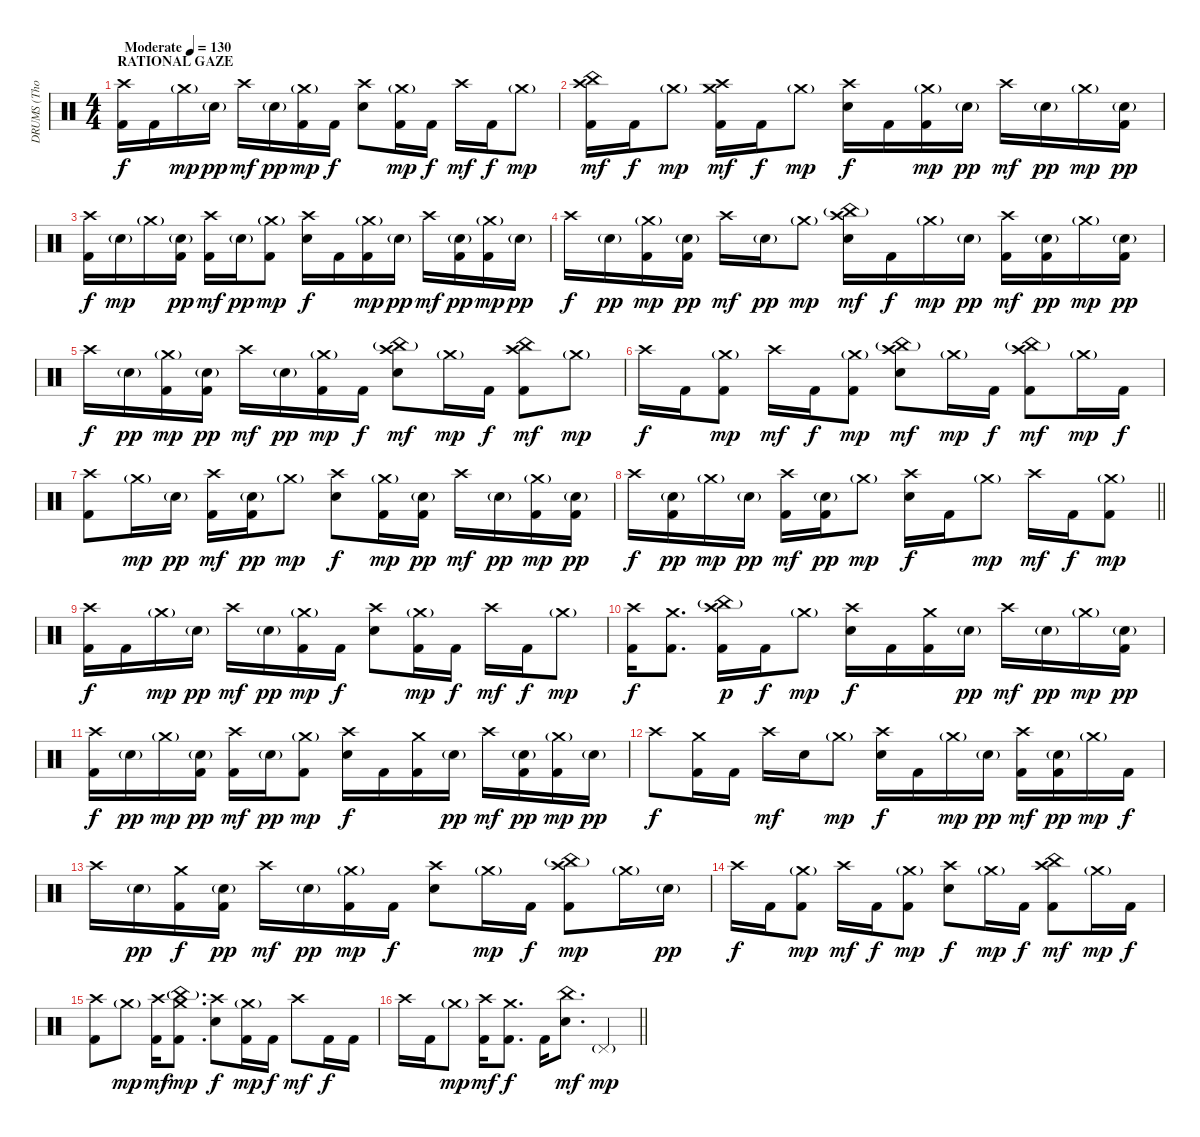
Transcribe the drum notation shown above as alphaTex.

\track ("DRUMS (Thomas Haake)" "DRUMS (Tho") {instrument percussion}
\staff {score}
\articulation defaults
\ts (4 4)
\section ("" "RATIONAL GAZE")
\tempo (130 "Moderate")
\clef neutral
\ks c
("Crash high (hit)" "Kick (hit) 2").16{dy f} "Kick (hit) 2".16 "Crash medium (hit)"{g}.16{dy mp} "Electric Snare (hit)"{g}.16{dy pp} "Crash high (hit)".16{dy mf} "Electric Snare (hit)"{g}.16{dy pp} ("Crash medium (hit)"{g} "Kick (hit) 2").16{dy mp} "Kick (hit) 2".16{dy f} ("Crash high (hit)" "Electric Snare (hit)").8 ("Crash medium (hit)"{g} "Kick (hit) 2").16{dy mp} "Kick (hit) 2".16{dy f} "Crash high (hit)".16{dy mf} "Kick (hit) 2".16{dy f} "Crash medium (hit)"{g}.8{dy mp} |
("Crash high (hit)" "China (hit)" "Kick (hit) 2").16{dy mf} "Kick (hit) 2".16{dy f} "Crash medium (hit)"{g}.8{dy mp} ("Crash high (hit)" "Crash medium (hit)" "Kick (hit) 2").16{dy mf} "Kick (hit) 2".16{dy f} "Crash medium (hit)"{g}.8{dy mp} ("Crash high (hit)" "Electric Snare (hit)").16{dy f} "Kick (hit) 2".16 ("Crash medium (hit)"{g} "Kick (hit) 2").16{dy mp} "Electric Snare (hit)"{g}.16{dy pp} "Crash high (hit)".16{dy mf} "Electric Snare (hit)"{g}.16{dy pp} "Crash medium (hit)"{g}.16{dy mp} ("Electric Snare (hit)"{g} "Kick (hit) 2").16{dy pp} |
("Crash high (hit)" "Kick (hit) 2").16{dy f} "Electric Snare (hit)"{g}.16{dy mp} "Crash medium (hit)"{g}.16 ("Electric Snare (hit)"{g} "Kick (hit) 2").16{dy pp} ("Crash high (hit)" "Kick (hit) 2").16{dy mf} "Electric Snare (hit)"{g}.16{dy pp} ("Crash medium (hit)"{g} "Kick (hit) 2").8{dy mp} ("Crash high (hit)" "Electric Snare (hit)").16{dy f} "Kick (hit) 2".16 ("Crash medium (hit)"{g} "Kick (hit) 2").16{dy mp} "Electric Snare (hit)"{g}.16{dy pp} "Crash high (hit)".16{dy mf} ("Electric Snare (hit)"{g} "Kick (hit) 2").16{dy pp} ("Crash medium (hit)"{g} "Kick (hit) 2").16{dy mp} "Electric Snare (hit)"{g}.16{dy pp} |
"Crash high (hit)".16{dy f} "Electric Snare (hit)"{g}.16{dy pp} ("Crash medium (hit)"{g} "Kick (hit) 2").16{dy mp} ("Electric Snare (hit)"{g} "Kick (hit) 2").16{dy pp} "Crash high (hit)".16{dy mf} "Electric Snare (hit)"{g}.16{dy pp} "Crash medium (hit)"{g}.8{dy mp} ("Crash high (hit)" "China (hit)"{g} "Electric Snare (hit)").16{dy mf} "Kick (hit) 2".16{dy f} "Crash medium (hit)"{g}.16{dy mp} "Electric Snare (hit)"{g}.16{dy pp} ("Crash high (hit)" "Kick (hit) 2").16{dy mf} ("Electric Snare (hit)"{g} "Kick (hit) 2").16{dy pp} "Crash medium (hit)"{g}.16{dy mp} ("Electric Snare (hit)"{g} "Kick (hit) 2").16{dy pp} |
"Crash high (hit)".16{dy f} "Electric Snare (hit)"{g}.16{dy pp} ("Crash medium (hit)"{g} "Kick (hit) 2").16{dy mp} ("Electric Snare (hit)"{g} "Kick (hit) 2").16{dy pp} "Crash high (hit)".16{dy mf} "Electric Snare (hit)"{g}.16{dy pp} ("Crash medium (hit)"{g} "Kick (hit) 2").16{dy mp} "Kick (hit) 2".16{dy f} ("Crash high (hit)" "China (hit)"{g} "Electric Snare (hit)").8{dy mf} "Crash medium (hit)"{g}.16{dy mp} "Kick (hit) 2".16{dy f} ("Crash high (hit)" "China (hit)" "Kick (hit) 2").8{dy mf} "Crash medium (hit)"{g}.8{dy mp} |
"Crash high (hit)".16{dy f} "Kick (hit) 2".16 ("Crash medium (hit)"{g} "Kick (hit) 2").8{dy mp} "Crash high (hit)".16{dy mf} "Kick (hit) 2".16{dy f} ("Crash medium (hit)"{g} "Kick (hit) 2").8{dy mp} ("Crash high (hit)" "China (hit)"{g} "Electric Snare (hit)").8{dy mf} "Crash medium (hit)"{g}.16{dy mp} "Kick (hit) 2".16{dy f} ("Crash high (hit)" "China (hit)"{g} "Kick (hit) 2").8{dy mf} "Crash medium (hit)"{g}.16{dy mp} "Kick (hit) 2".16{dy f} |
("Crash high (hit)" "Kick (hit) 2").8 "Crash medium (hit)"{g}.16{dy mp} "Electric Snare (hit)"{g}.16{dy pp} ("Crash high (hit)" "Kick (hit) 2").16{dy mf} ("Electric Snare (hit)"{g} "Kick (hit) 2").16{dy pp} "Crash medium (hit)"{g}.8{dy mp} ("Crash high (hit)" "Electric Snare (hit)").8{dy f} ("Crash medium (hit)"{g} "Kick (hit) 2").16{dy mp} ("Electric Snare (hit)"{g} "Kick (hit) 2").16{dy pp} "Crash high (hit)".16{dy mf} "Electric Snare (hit)"{g}.16{dy pp} ("Crash medium (hit)"{g} "Kick (hit) 2").16{dy mp} ("Electric Snare (hit)"{g} "Kick (hit) 2").16{dy pp} |
\barLineRight lightlight "Crash high (hit)".16{dy f}
("Electric Snare (hit)"{g} "Kick (hit) 2").16{dy pp} "Crash medium (hit)"{g}.16{dy mp} "Electric Snare (hit)"{g}.16{dy pp} ("Crash high (hit)" "Kick (hit) 2").16{dy mf} ("Electric Snare (hit)"{g} "Kick (hit) 2").16{dy pp} "Crash medium (hit)"{g}.8{dy mp} ("Crash high (hit)" "Electric Snare (hit)").16{dy f} "Kick (hit) 2".16 "Crash medium (hit)"{g}.8{dy mp} "Crash high (hit)".16{dy mf} "Kick (hit) 2".16{dy f} ("Crash medium (hit)"{g} "Kick (hit) 2").8{dy mp} |
("Crash high (hit)" "Kick (hit) 2").16{dy f} "Kick (hit) 2".16 "Crash medium (hit)"{g}.16{dy mp} "Electric Snare (hit)"{g}.16{dy pp} "Crash high (hit)".16{dy mf} "Electric Snare (hit)"{g}.16{dy pp} ("Crash medium (hit)"{g} "Kick (hit) 2").16{dy mp} "Kick (hit) 2".16{dy f} ("Crash high (hit)" "Electric Snare (hit)").8 ("Crash medium (hit)"{g} "Kick (hit) 2").16{dy mp} "Kick (hit) 2".16{dy f} "Crash high (hit)".16{dy mf} "Kick (hit) 2".16{dy f} "Crash medium (hit)"{g}.8{dy mp} |
("Crash high (hit)" "Kick (hit) 2").16{dy f} ("Crash medium (hit)" "Kick (hit) 2").8{d} ("Crash high (hit)" "China (hit)"{g} "Kick (hit) 2").16{dy p} "Kick (hit) 2".16{dy f} "Crash medium (hit)"{g}.8{dy mp} ("Crash high (hit)" "Electric Snare (hit)").16{dy f} "Kick (hit) 2".16 ("Crash medium (hit)" "Kick (hit) 2").16 "Electric Snare (hit)"{g}.16{dy pp} "Crash high (hit)".16{dy mf} "Electric Snare (hit)"{g}.16{dy pp} "Crash medium (hit)"{g}.16{dy mp} ("Electric Snare (hit)"{g} "Kick (hit) 2").16{dy pp} |
("Crash high (hit)" "Kick (hit) 2").16{dy f} "Electric Snare (hit)"{g}.16{dy pp} "Crash medium (hit)"{g}.16{dy mp} ("Electric Snare (hit)"{g} "Kick (hit) 2").16{dy pp} ("Crash high (hit)" "Kick (hit) 2").16{dy mf} "Electric Snare (hit)"{g}.16{dy pp} ("Crash medium (hit)"{g} "Kick (hit) 2").8{dy mp} ("Crash high (hit)" "Electric Snare (hit)").16{dy f} "Kick (hit) 2".16 ("Crash medium (hit)" "Kick (hit) 2").16 "Electric Snare (hit)"{g}.16{dy pp} "Crash high (hit)".16{dy mf} ("Electric Snare (hit)"{g} "Kick (hit) 2").16{dy pp} ("Crash medium (hit)"{g} "Kick (hit) 2").16{dy mp} "Electric Snare (hit)"{g}.16{dy pp} |
"Crash high (hit)".8{dy f} ("Crash medium (hit)" "Kick (hit) 2").16 "Kick (hit) 2".16 "Crash high (hit)".16{dy mf} "Electric Snare (hit)".16 "Crash medium (hit)"{g}.8{dy mp} ("Crash high (hit)" "Electric Snare (hit)").16{dy f} "Kick (hit) 2".16 "Crash medium (hit)"{g}.16{dy mp} "Electric Snare (hit)"{g}.16{dy pp} ("Crash high (hit)" "Kick (hit) 2").16{dy mf} ("Electric Snare (hit)"{g} "Kick (hit) 2").16{dy pp} "Crash medium (hit)"{g}.16{dy mp} "Kick (hit) 2".16{dy f} |
"Crash high (hit)".16 "Electric Snare (hit)"{g}.16{dy pp} ("Crash medium (hit)" "Kick (hit) 2").16{dy f} ("Electric Snare (hit)"{g} "Kick (hit) 2").16{dy pp} "Crash high (hit)".16{dy mf} "Electric Snare (hit)"{g}.16{dy pp} ("Crash medium (hit)"{g} "Kick (hit) 2").16{dy mp} "Kick (hit) 2".16{dy f} ("Crash high (hit)" "Electric Snare (hit)").8 "Crash medium (hit)"{g}.16{dy mp} "Kick (hit) 2".16{dy f} ("Crash high (hit)" "China (hit)"{g} "Kick (hit) 2").8{dy mp} "Crash medium (hit)"{g}.16 "Electric Snare (hit)"{g}.16{dy pp} |
"Crash high (hit)".16{dy f} "Kick (hit) 2".16 ("Crash medium (hit)"{g} "Kick (hit) 2").8{dy mp} "Crash high (hit)".16{dy mf} "Kick (hit) 2".16{dy f} ("Crash medium (hit)"{g} "Kick (hit) 2").8{dy mp} ("Crash high (hit)" "Electric Snare (hit)").8{dy f} "Crash medium (hit)"{g}.16{dy mp} "Kick (hit) 2".16{dy f} ("Crash high (hit)" "China (hit)" "Kick (hit) 2").8{dy mf} "Crash medium (hit)"{g}.16{dy mp} "Kick (hit) 2".16{dy f} |
("Crash high (hit)" "Kick (hit) 2").8 "Crash medium (hit)"{g}.8{dy mp} ("Crash high (hit)" "Kick (hit) 2").16{dy mf} ("Crash medium (hit)" "China (hit)"{g} "Kick (hit) 2").8{d dy mp} ("Crash high (hit)" "Electric Snare (hit)").8{dy f} ("Crash medium (hit)"{g} "Kick (hit) 2").16{dy mp} "Kick (hit) 2".16{dy f} "Crash high (hit)".8{dy mf} "Kick (hit) 2".16{dy f} "Kick (hit) 2".16 |
\barLineRight lightlight "Crash high (hit)".16 "Kick (hit) 2".16 "Crash medium (hit)"{g}.8{dy mp}
("Crash high (hit)" "Kick (hit) 2").16{dy mf} ("Crash medium (hit)" "Kick (hit) 2").8{d dy f} "Kick (hit) 2".16 ("China (hit)" "Electric Snare (hit)").8{d dy mf} "Pedal Hi-Hat (hit)"{g}.4{dy mp}
